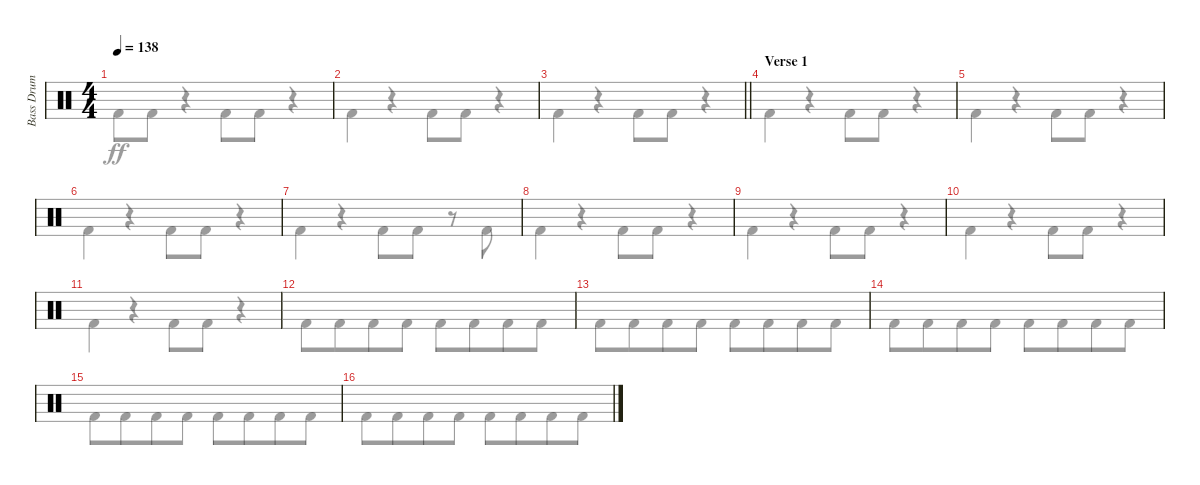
\track ("Bass Drum" "Bass Drum") {instrument percussion}
\staff {score}
\articulation defaults
\voice
\ts (4 4)
\tempo 138
\clef neutral
\ks c
|
|
\barLineRight lightlight
|
\section ("" "Verse 1")
|
|
|
|
|
|
|
|
|
|
|
|
\voice
\clef neutral
\ks c "Kick (hit) 2".8{dy ff} "Kick (hit) 2".8
r.4 "Kick (hit) 2".8 "Kick (hit) 2".8 r.4 |
"Kick (hit) 2".4 r.4 "Kick (hit) 2".8 "Kick (hit) 2".8 r.4 |
\barLineRight lightlight "Kick (hit) 2".4
r.4 "Kick (hit) 2".8 "Kick (hit) 2".8 r.4 |
"Kick (hit) 2".4 r.4 "Kick (hit) 2".8 "Kick (hit) 2".8 r.4 |
"Kick (hit) 2".4 r.4 "Kick (hit) 2".8 "Kick (hit) 2".8 r.4 |
"Kick (hit) 2".4 r.4 "Kick (hit) 2".8 "Kick (hit) 2".8 r.4 |
"Kick (hit) 2".4 r.4 "Kick (hit) 2".8 "Kick (hit) 2".8 r.8 "Kick (hit) 2".8 |
"Kick (hit) 2".4 r.4 "Kick (hit) 2".8 "Kick (hit) 2".8 r.4 |
"Kick (hit) 2".4 r.4 "Kick (hit) 2".8 "Kick (hit) 2".8 r.4 |
"Kick (hit) 2".4 r.4 "Kick (hit) 2".8 "Kick (hit) 2".8 r.4 |
"Kick (hit) 2".4 r.4 "Kick (hit) 2".8 "Kick (hit) 2".8 r.4 |
"Kick (hit) 2".8 "Kick (hit) 2".8{beam merge} "Kick (hit) 2".8 "Kick (hit) 2".8 "Kick (hit) 2".8 "Kick (hit) 2".8{beam merge} "Kick (hit) 2".8 "Kick (hit) 2".8 |
"Kick (hit) 2".8 "Kick (hit) 2".8{beam merge} "Kick (hit) 2".8 "Kick (hit) 2".8 "Kick (hit) 2".8 "Kick (hit) 2".8{beam merge} "Kick (hit) 2".8 "Kick (hit) 2".8 |
"Kick (hit) 2".8 "Kick (hit) 2".8{beam merge} "Kick (hit) 2".8 "Kick (hit) 2".8 "Kick (hit) 2".8 "Kick (hit) 2".8{beam merge} "Kick (hit) 2".8 "Kick (hit) 2".8 |
"Kick (hit) 2".8 "Kick (hit) 2".8{beam merge} "Kick (hit) 2".8 "Kick (hit) 2".8 "Kick (hit) 2".8 "Kick (hit) 2".8{beam merge} "Kick (hit) 2".8 "Kick (hit) 2".8 |
"Kick (hit) 2".8 "Kick (hit) 2".8{beam merge} "Kick (hit) 2".8 "Kick (hit) 2".8 "Kick (hit) 2".8 "Kick (hit) 2".8{beam merge} "Kick (hit) 2".8 "Kick (hit) 2".8
